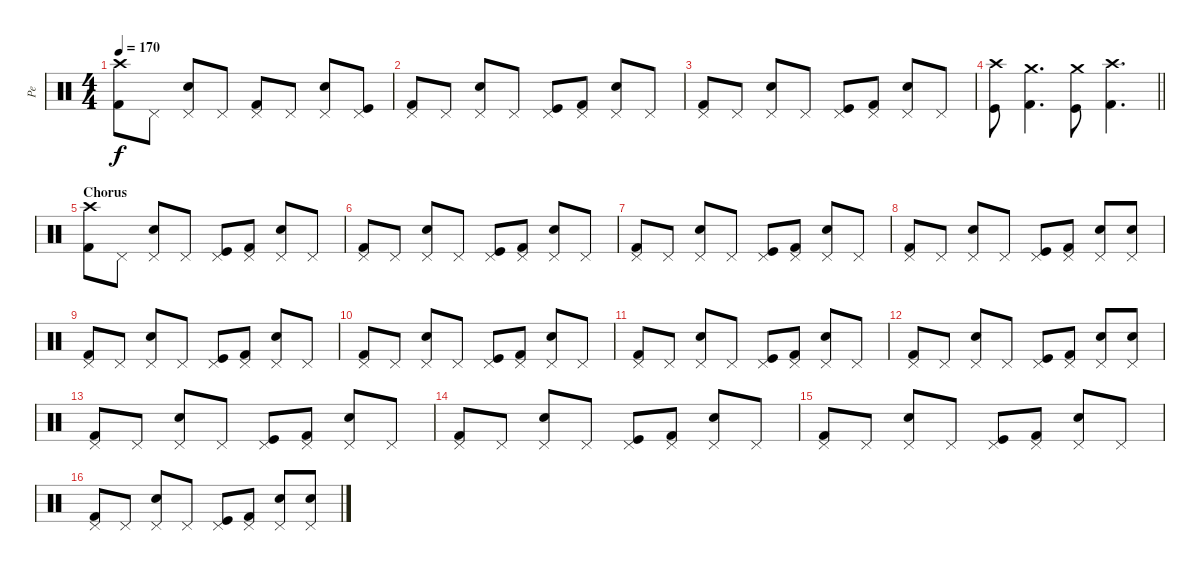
\track ("Pe" "Pe") {instrument percussion}
\staff {score}
\articulation defaults
\ts (4 4)
\tempo 170
\clef neutral
\ks c
("Kick (hit) 2" "Crash high (hit)").8{dy f} "Pedal Hi-Hat (hit)".8 ("Electric Snare (hit)" "Pedal Hi-Hat (hit)").8 "Pedal Hi-Hat (hit)".8 ("Kick (hit) 2" "Pedal Hi-Hat (hit)").8 "Pedal Hi-Hat (hit)".8 ("Electric Snare (hit)" "Pedal Hi-Hat (hit)").8 ("Kick (hit)" "Pedal Hi-Hat (hit)").8 |
("Kick (hit) 2" "Pedal Hi-Hat (hit)").8 "Pedal Hi-Hat (hit)".8 ("Electric Snare (hit)" "Pedal Hi-Hat (hit)").8 "Pedal Hi-Hat (hit)".8 ("Kick (hit)" "Pedal Hi-Hat (hit)").8 ("Kick (hit) 2" "Pedal Hi-Hat (hit)").8 ("Electric Snare (hit)" "Pedal Hi-Hat (hit)").8 "Pedal Hi-Hat (hit)".8 |
("Kick (hit) 2" "Pedal Hi-Hat (hit)").8 "Pedal Hi-Hat (hit)".8 ("Electric Snare (hit)" "Pedal Hi-Hat (hit)").8 "Pedal Hi-Hat (hit)".8 ("Kick (hit)" "Pedal Hi-Hat (hit)").8 ("Kick (hit) 2" "Pedal Hi-Hat (hit)").8 ("Electric Snare (hit)" "Pedal Hi-Hat (hit)").8 "Pedal Hi-Hat (hit)".8 |
\barLineRight lightlight
("Kick (hit)" "Crash high (hit)").8 ("Kick (hit) 2" "Crash medium (hit)").4{d} ("Kick (hit)" "Crash medium (hit)").8 ("Kick (hit) 2" "Crash high (hit)").4{d} |
\section ("" "Chorus")
("Kick (hit) 2" "Crash high (hit)").8 "Pedal Hi-Hat (hit)".8 ("Electric Snare (hit)" "Pedal Hi-Hat (hit)").8 "Pedal Hi-Hat (hit)".8 ("Kick (hit)" "Pedal Hi-Hat (hit)").8 ("Kick (hit) 2" "Pedal Hi-Hat (hit)").8 ("Electric Snare (hit)" "Pedal Hi-Hat (hit)").8 "Pedal Hi-Hat (hit)".8 |
("Kick (hit) 2" "Pedal Hi-Hat (hit)").8 "Pedal Hi-Hat (hit)".8 ("Electric Snare (hit)" "Pedal Hi-Hat (hit)").8 "Pedal Hi-Hat (hit)".8 ("Kick (hit)" "Pedal Hi-Hat (hit)").8 ("Kick (hit) 2" "Pedal Hi-Hat (hit)").8 ("Electric Snare (hit)" "Pedal Hi-Hat (hit)").8 "Pedal Hi-Hat (hit)".8 |
("Kick (hit) 2" "Pedal Hi-Hat (hit)").8 "Pedal Hi-Hat (hit)".8 ("Electric Snare (hit)" "Pedal Hi-Hat (hit)").8 "Pedal Hi-Hat (hit)".8 ("Kick (hit)" "Pedal Hi-Hat (hit)").8 ("Kick (hit) 2" "Pedal Hi-Hat (hit)").8 ("Electric Snare (hit)" "Pedal Hi-Hat (hit)").8 "Pedal Hi-Hat (hit)".8 |
("Kick (hit) 2" "Pedal Hi-Hat (hit)").8 "Pedal Hi-Hat (hit)".8 ("Electric Snare (hit)" "Pedal Hi-Hat (hit)").8 "Pedal Hi-Hat (hit)".8 ("Kick (hit)" "Pedal Hi-Hat (hit)").8 ("Kick (hit) 2" "Pedal Hi-Hat (hit)").8 ("Electric Snare (hit)" "Pedal Hi-Hat (hit)").8 ("Electric Snare (hit)" "Pedal Hi-Hat (hit)").8 |
("Kick (hit) 2" "Pedal Hi-Hat (hit)").8 "Pedal Hi-Hat (hit)".8 ("Electric Snare (hit)" "Pedal Hi-Hat (hit)").8 "Pedal Hi-Hat (hit)".8 ("Kick (hit)" "Pedal Hi-Hat (hit)").8 ("Kick (hit) 2" "Pedal Hi-Hat (hit)").8 ("Electric Snare (hit)" "Pedal Hi-Hat (hit)").8 "Pedal Hi-Hat (hit)".8 |
("Kick (hit) 2" "Pedal Hi-Hat (hit)").8 "Pedal Hi-Hat (hit)".8 ("Electric Snare (hit)" "Pedal Hi-Hat (hit)").8 "Pedal Hi-Hat (hit)".8 ("Kick (hit)" "Pedal Hi-Hat (hit)").8 ("Kick (hit) 2" "Pedal Hi-Hat (hit)").8 ("Electric Snare (hit)" "Pedal Hi-Hat (hit)").8 "Pedal Hi-Hat (hit)".8 |
("Kick (hit) 2" "Pedal Hi-Hat (hit)").8 "Pedal Hi-Hat (hit)".8 ("Electric Snare (hit)" "Pedal Hi-Hat (hit)").8 "Pedal Hi-Hat (hit)".8 ("Kick (hit)" "Pedal Hi-Hat (hit)").8 ("Kick (hit) 2" "Pedal Hi-Hat (hit)").8 ("Electric Snare (hit)" "Pedal Hi-Hat (hit)").8 "Pedal Hi-Hat (hit)".8 |
("Kick (hit) 2" "Pedal Hi-Hat (hit)").8 "Pedal Hi-Hat (hit)".8 ("Electric Snare (hit)" "Pedal Hi-Hat (hit)").8 "Pedal Hi-Hat (hit)".8 ("Kick (hit)" "Pedal Hi-Hat (hit)").8 ("Kick (hit) 2" "Pedal Hi-Hat (hit)").8 ("Electric Snare (hit)" "Pedal Hi-Hat (hit)").8 ("Electric Snare (hit)" "Pedal Hi-Hat (hit)").8 |
("Kick (hit) 2" "Pedal Hi-Hat (hit)").8 "Pedal Hi-Hat (hit)".8 ("Electric Snare (hit)" "Pedal Hi-Hat (hit)").8 "Pedal Hi-Hat (hit)".8 ("Kick (hit)" "Pedal Hi-Hat (hit)").8 ("Kick (hit) 2" "Pedal Hi-Hat (hit)").8 ("Electric Snare (hit)" "Pedal Hi-Hat (hit)").8 "Pedal Hi-Hat (hit)".8 |
("Kick (hit) 2" "Pedal Hi-Hat (hit)").8 "Pedal Hi-Hat (hit)".8 ("Electric Snare (hit)" "Pedal Hi-Hat (hit)").8 "Pedal Hi-Hat (hit)".8 ("Kick (hit)" "Pedal Hi-Hat (hit)").8 ("Kick (hit) 2" "Pedal Hi-Hat (hit)").8 ("Electric Snare (hit)" "Pedal Hi-Hat (hit)").8 "Pedal Hi-Hat (hit)".8 |
("Kick (hit) 2" "Pedal Hi-Hat (hit)").8 "Pedal Hi-Hat (hit)".8 ("Electric Snare (hit)" "Pedal Hi-Hat (hit)").8 "Pedal Hi-Hat (hit)".8 ("Kick (hit)" "Pedal Hi-Hat (hit)").8 ("Kick (hit) 2" "Pedal Hi-Hat (hit)").8 ("Electric Snare (hit)" "Pedal Hi-Hat (hit)").8 "Pedal Hi-Hat (hit)".8 |
("Kick (hit) 2" "Pedal Hi-Hat (hit)").8 "Pedal Hi-Hat (hit)".8 ("Electric Snare (hit)" "Pedal Hi-Hat (hit)").8 "Pedal Hi-Hat (hit)".8 ("Kick (hit)" "Pedal Hi-Hat (hit)").8 ("Kick (hit) 2" "Pedal Hi-Hat (hit)").8 ("Electric Snare (hit)" "Pedal Hi-Hat (hit)").8 ("Electric Snare (hit)" "Pedal Hi-Hat (hit)").8
